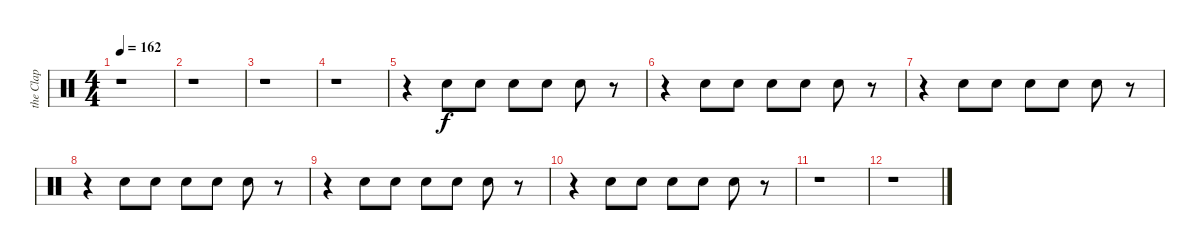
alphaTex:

\track ("the Clap" "the Clap") {instrument percussion}
\staff {score}
\articulation defaults
\ts (4 4)
\tempo 162
\clef neutral
\ks c
r.1{dy f} |
r.1 |
r.1 |
r.1 |
r.4 "Hand Clap (hit)".8 "Hand Clap (hit)".8 "Hand Clap (hit)".8 "Hand Clap (hit)".8 "Hand Clap (hit)".8 r.8 |
r.4 "Hand Clap (hit)".8 "Hand Clap (hit)".8 "Hand Clap (hit)".8 "Hand Clap (hit)".8 "Hand Clap (hit)".8 r.8 |
r.4 "Hand Clap (hit)".8 "Hand Clap (hit)".8 "Hand Clap (hit)".8 "Hand Clap (hit)".8 "Hand Clap (hit)".8 r.8 |
r.4 "Hand Clap (hit)".8 "Hand Clap (hit)".8 "Hand Clap (hit)".8 "Hand Clap (hit)".8 "Hand Clap (hit)".8 r.8 |
r.4 "Hand Clap (hit)".8 "Hand Clap (hit)".8 "Hand Clap (hit)".8 "Hand Clap (hit)".8 "Hand Clap (hit)".8 r.8 |
r.4 "Hand Clap (hit)".8 "Hand Clap (hit)".8 "Hand Clap (hit)".8 "Hand Clap (hit)".8 "Hand Clap (hit)".8 r.8 |
r.1 |
r.1
